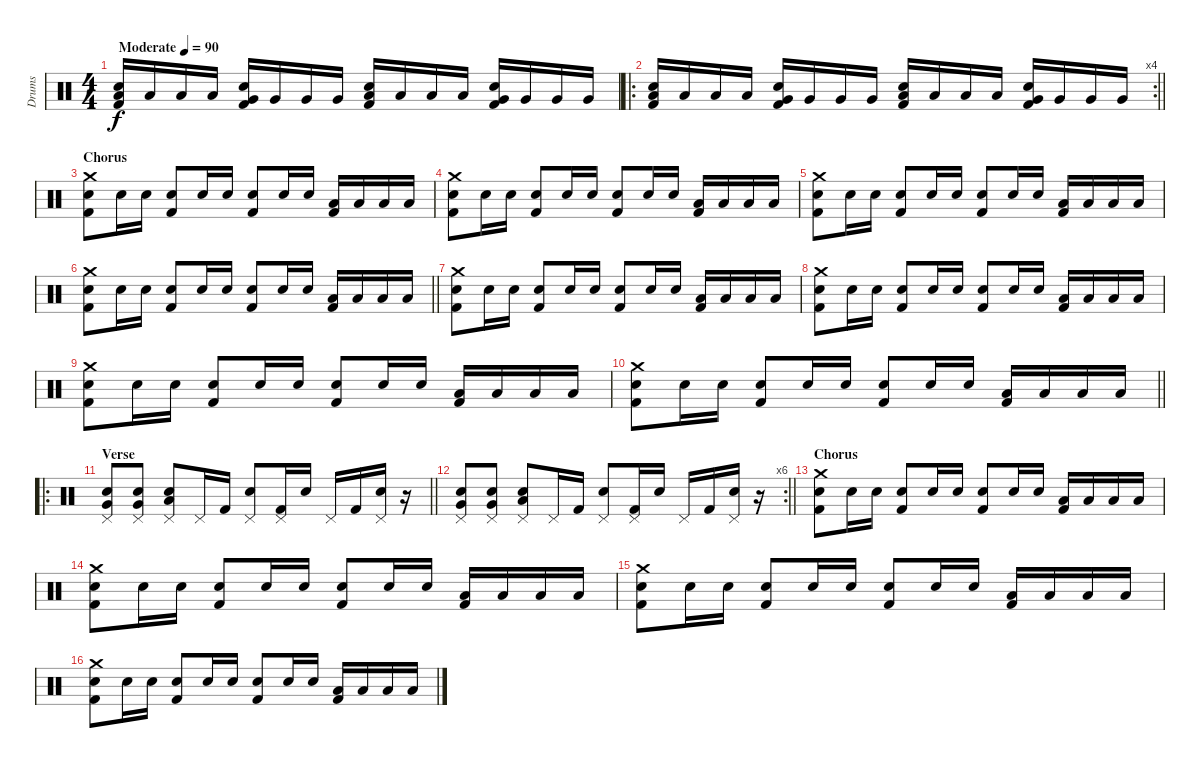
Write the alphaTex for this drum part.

\track ("Drums" "Drums") {instrument percussion}
\staff {score}
\articulation defaults
\ts (4 4)
\tempo (90 "Moderate")
\clef neutral
\ks c
("Kick (hit) 2" "Snare (hit) 2" "Low Floor Tom (hit)").16{dy f} "Low Floor Tom (hit)".16 "Low Floor Tom (hit)".16 "Low Floor Tom (hit)".16 ("Kick (hit) 2" "Snare (hit) 2" "Very Low Tom (hit)").16 "Very Low Tom (hit)".16 "Very Low Tom (hit)".16 "Very Low Tom (hit)".16 ("Kick (hit) 2" "Snare (hit) 2" "Low Floor Tom (hit)").16 "Low Floor Tom (hit)".16 "Low Floor Tom (hit)".16 "Low Floor Tom (hit)".16 ("Kick (hit) 2" "Snare (hit) 2" "Very Low Tom (hit)").16 "Very Low Tom (hit)".16 "Very Low Tom (hit)".16 "Very Low Tom (hit)".16 |
\ro
\rc 4
\barLineRight lightlight
("Kick (hit) 2" "Snare (hit) 2" "Low Floor Tom (hit)").16 "Low Floor Tom (hit)".16 "Low Floor Tom (hit)".16 "Low Floor Tom (hit)".16 ("Kick (hit) 2" "Snare (hit) 2" "Very Low Tom (hit)").16 "Very Low Tom (hit)".16 "Very Low Tom (hit)".16 "Very Low Tom (hit)".16 ("Kick (hit) 2" "Snare (hit) 2" "Low Floor Tom (hit)").16 "Low Floor Tom (hit)".16 "Low Floor Tom (hit)".16 "Low Floor Tom (hit)".16 ("Kick (hit) 2" "Snare (hit) 2" "Very Low Tom (hit)").16 "Very Low Tom (hit)".16 "Very Low Tom (hit)".16 "Very Low Tom (hit)".16 |
\section ("" "Chorus")
("Kick (hit) 2" "Snare (hit) 2" "Crash medium (hit)").8 "Snare (hit) 2".16 "Snare (hit) 2".16 ("Kick (hit) 2" "Snare (hit) 2").8 "Snare (hit) 2".16 "Snare (hit) 2".16 ("Kick (hit) 2" "Snare (hit) 2").8 "Snare (hit) 2".16 "Snare (hit) 2".16 ("Kick (hit) 2" "Low Floor Tom (hit)").16 "Low Floor Tom (hit)".16 "Low Floor Tom (hit)".16 "Low Floor Tom (hit)".16 |
("Kick (hit) 2" "Snare (hit) 2" "Crash medium (hit)").8 "Snare (hit) 2".16 "Snare (hit) 2".16 ("Kick (hit) 2" "Snare (hit) 2").8 "Snare (hit) 2".16 "Snare (hit) 2".16 ("Kick (hit) 2" "Snare (hit) 2").8 "Snare (hit) 2".16 "Snare (hit) 2".16 ("Kick (hit) 2" "Low Floor Tom (hit)").16 "Low Floor Tom (hit)".16 "Low Floor Tom (hit)".16 "Low Floor Tom (hit)".16 |
("Kick (hit) 2" "Snare (hit) 2" "Crash medium (hit)").8 "Snare (hit) 2".16 "Snare (hit) 2".16 ("Kick (hit) 2" "Snare (hit) 2").8 "Snare (hit) 2".16 "Snare (hit) 2".16 ("Kick (hit) 2" "Snare (hit) 2").8 "Snare (hit) 2".16 "Snare (hit) 2".16 ("Kick (hit) 2" "Low Floor Tom (hit)").16 "Low Floor Tom (hit)".16 "Low Floor Tom (hit)".16 "Low Floor Tom (hit)".16 |
\barLineRight lightlight
("Kick (hit) 2" "Snare (hit) 2" "Crash medium (hit)").8 "Snare (hit) 2".16 "Snare (hit) 2".16 ("Kick (hit) 2" "Snare (hit) 2").8 "Snare (hit) 2".16 "Snare (hit) 2".16 ("Kick (hit) 2" "Snare (hit) 2").8 "Snare (hit) 2".16 "Snare (hit) 2".16 ("Kick (hit) 2" "Low Floor Tom (hit)").16 "Low Floor Tom (hit)".16 "Low Floor Tom (hit)".16 "Low Floor Tom (hit)".16 |
("Kick (hit) 2" "Snare (hit) 2" "Crash medium (hit)").8 "Snare (hit) 2".16 "Snare (hit) 2".16 ("Kick (hit) 2" "Snare (hit) 2").8 "Snare (hit) 2".16 "Snare (hit) 2".16 ("Kick (hit) 2" "Snare (hit) 2").8 "Snare (hit) 2".16 "Snare (hit) 2".16 ("Kick (hit) 2" "Low Floor Tom (hit)").16 "Low Floor Tom (hit)".16 "Low Floor Tom (hit)".16 "Low Floor Tom (hit)".16 |
("Kick (hit) 2" "Snare (hit) 2" "Crash medium (hit)").8 "Snare (hit) 2".16 "Snare (hit) 2".16 ("Kick (hit) 2" "Snare (hit) 2").8 "Snare (hit) 2".16 "Snare (hit) 2".16 ("Kick (hit) 2" "Snare (hit) 2").8 "Snare (hit) 2".16 "Snare (hit) 2".16 ("Kick (hit) 2" "Low Floor Tom (hit)").16 "Low Floor Tom (hit)".16 "Low Floor Tom (hit)".16 "Low Floor Tom (hit)".16 |
("Kick (hit) 2" "Snare (hit) 2" "Crash medium (hit)").8 "Snare (hit) 2".16 "Snare (hit) 2".16 ("Kick (hit) 2" "Snare (hit) 2").8 "Snare (hit) 2".16 "Snare (hit) 2".16 ("Kick (hit) 2" "Snare (hit) 2").8 "Snare (hit) 2".16 "Snare (hit) 2".16 ("Kick (hit) 2" "Low Floor Tom (hit)").16 "Low Floor Tom (hit)".16 "Low Floor Tom (hit)".16 "Low Floor Tom (hit)".16 |
\barLineRight lightlight
("Kick (hit) 2" "Snare (hit) 2" "Crash medium (hit)").8 "Snare (hit) 2".16 "Snare (hit) 2".16 ("Kick (hit) 2" "Snare (hit) 2").8 "Snare (hit) 2".16 "Snare (hit) 2".16 ("Kick (hit) 2" "Snare (hit) 2").8 "Snare (hit) 2".16 "Snare (hit) 2".16 ("Kick (hit) 2" "Low Floor Tom (hit)").16 "Low Floor Tom (hit)".16 "Low Floor Tom (hit)".16 "Low Floor Tom (hit)".16 |
\ro
\section ("" "Verse")
\barLineRight lightlight
("Very Low Tom (hit)" "Snare (hit) 2" "Pedal Hi-Hat (hit)").8 ("Very Low Tom (hit)" "Snare (hit) 2" "Pedal Hi-Hat (hit)").8 ("Low Floor Tom (hit)" "Snare (hit) 2" "Pedal Hi-Hat (hit)").8 "Pedal Hi-Hat (hit)".16 "Kick (hit) 2".16 ("Snare (hit) 2" "Pedal Hi-Hat (hit)").8 ("Kick (hit) 2" "Pedal Hi-Hat (hit)").16 "Snare (hit) 2".16 "Pedal Hi-Hat (hit)".16 "Kick (hit) 2".16 ("Snare (hit) 2" "Pedal Hi-Hat (hit)").16 r.16 |
\rc 6
\barLineRight lightlight
("Very Low Tom (hit)" "Snare (hit) 2" "Pedal Hi-Hat (hit)").8 ("Very Low Tom (hit)" "Snare (hit) 2" "Pedal Hi-Hat (hit)").8 ("Low Floor Tom (hit)" "Snare (hit) 2" "Pedal Hi-Hat (hit)").8 "Pedal Hi-Hat (hit)".16 "Kick (hit) 2".16 ("Snare (hit) 2" "Pedal Hi-Hat (hit)").8 ("Kick (hit) 2" "Pedal Hi-Hat (hit)").16 "Snare (hit) 2".16 "Pedal Hi-Hat (hit)".16 "Kick (hit) 2".16 ("Snare (hit) 2" "Pedal Hi-Hat (hit)").16 r.16 |
\section ("" "Chorus")
("Kick (hit) 2" "Snare (hit) 2" "Crash medium (hit)").8 "Snare (hit) 2".16 "Snare (hit) 2".16 ("Kick (hit) 2" "Snare (hit) 2").8 "Snare (hit) 2".16 "Snare (hit) 2".16 ("Kick (hit) 2" "Snare (hit) 2").8 "Snare (hit) 2".16 "Snare (hit) 2".16 ("Kick (hit) 2" "Low Floor Tom (hit)").16 "Low Floor Tom (hit)".16 "Low Floor Tom (hit)".16 "Low Floor Tom (hit)".16 |
("Kick (hit) 2" "Snare (hit) 2" "Crash medium (hit)").8 "Snare (hit) 2".16 "Snare (hit) 2".16 ("Kick (hit) 2" "Snare (hit) 2").8 "Snare (hit) 2".16 "Snare (hit) 2".16 ("Kick (hit) 2" "Snare (hit) 2").8 "Snare (hit) 2".16 "Snare (hit) 2".16 ("Kick (hit) 2" "Low Floor Tom (hit)").16 "Low Floor Tom (hit)".16 "Low Floor Tom (hit)".16 "Low Floor Tom (hit)".16 |
("Kick (hit) 2" "Snare (hit) 2" "Crash medium (hit)").8 "Snare (hit) 2".16 "Snare (hit) 2".16 ("Kick (hit) 2" "Snare (hit) 2").8 "Snare (hit) 2".16 "Snare (hit) 2".16 ("Kick (hit) 2" "Snare (hit) 2").8 "Snare (hit) 2".16 "Snare (hit) 2".16 ("Kick (hit) 2" "Low Floor Tom (hit)").16 "Low Floor Tom (hit)".16 "Low Floor Tom (hit)".16 "Low Floor Tom (hit)".16 |
("Kick (hit) 2" "Snare (hit) 2" "Crash medium (hit)").8 "Snare (hit) 2".16 "Snare (hit) 2".16 ("Kick (hit) 2" "Snare (hit) 2").8 "Snare (hit) 2".16 "Snare (hit) 2".16 ("Kick (hit) 2" "Snare (hit) 2").8 "Snare (hit) 2".16 "Snare (hit) 2".16 ("Kick (hit) 2" "Low Floor Tom (hit)").16 "Low Floor Tom (hit)".16 "Low Floor Tom (hit)".16 "Low Floor Tom (hit)".16
